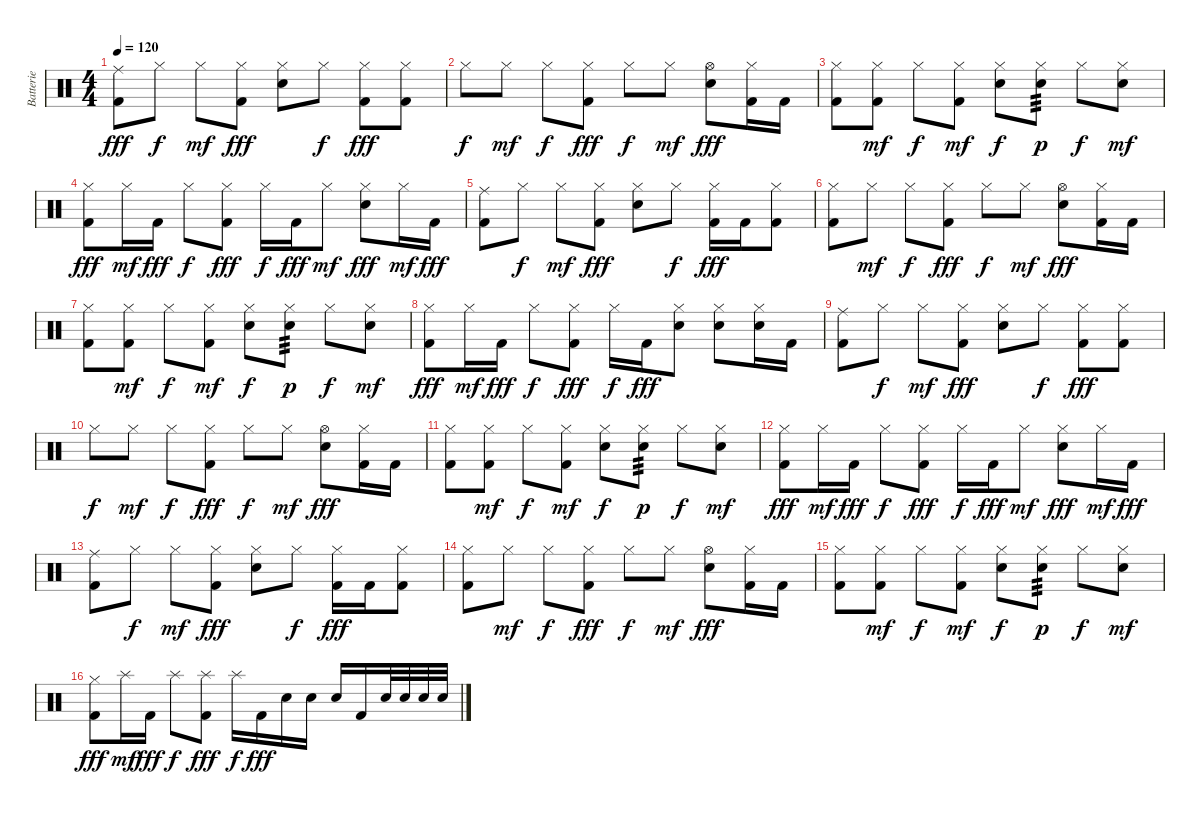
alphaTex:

\track ("Batterie" "Batterie") {instrument percussion}
\staff {score}
\articulation defaults
\ts (4 4)
\tempo 120
\clef neutral
\ks c
("Ride (middle)" "Kick (hit) 2").8{dy fff} "Hi-Hat (closed)".8{dy f} "Hi-Hat (closed)".8{dy mf} ("Hi-Hat (closed)" "Kick (hit) 2").8{dy fff} ("Hi-Hat (closed)" "Electric Snare (hit)").8 "Hi-Hat (closed)".8{dy f} ("Hi-Hat (closed)" "Kick (hit) 2").8{dy fff} ("Hi-Hat (closed)" "Kick (hit) 2").8 |
"Hi-Hat (closed)".8{dy f} "Hi-Hat (closed)".8{dy mf} "Hi-Hat (closed)".8{dy f} ("Hi-Hat (closed)" "Kick (hit) 2").8{dy fff} "Hi-Hat (closed)".8{dy f} "Hi-Hat (closed)".8{dy mf} ("Hi-Hat (open)" "Electric Snare (hit)").8{dy fff} ("Hi-Hat (closed)" "Kick (hit) 2").16 "Kick (hit) 2".16 |
("Hi-Hat (closed)" "Kick (hit) 2").8 ("Hi-Hat (closed)" "Kick (hit) 2").8{dy mf} "Hi-Hat (closed)".8{dy f} ("Hi-Hat (closed)" "Kick (hit) 2").8{dy mf} ("Hi-Hat (closed)" "Electric Snare (hit)").8{dy f} ("Hi-Hat (closed)" "Electric Snare (hit)").8{tp 3 dy p} "Hi-Hat (closed)".8{dy f} ("Hi-Hat (closed)" "Electric Snare (hit)").8{dy mf} |
("Hi-Hat (closed)" "Kick (hit) 2").8{dy fff} "Hi-Hat (closed)".16{dy mf} "Kick (hit) 2".16{dy fff} "Hi-Hat (closed)".8{dy f} ("Hi-Hat (closed)" "Kick (hit) 2").8{dy fff} "Hi-Hat (closed)".16{dy f} "Kick (hit) 2".16{dy fff} "Hi-Hat (closed)".8{dy mf} ("Hi-Hat (closed)" "Electric Snare (hit)").8{dy fff} "Hi-Hat (closed)".16{dy mf} "Kick (hit) 2".16{dy fff} |
("Ride (middle)" "Kick (hit) 2").8 "Hi-Hat (closed)".8{dy f} "Hi-Hat (closed)".8{dy mf} ("Hi-Hat (closed)" "Kick (hit) 2").8{dy fff} ("Hi-Hat (closed)" "Electric Snare (hit)").8 "Hi-Hat (closed)".8{dy f} ("Hi-Hat (closed)" "Kick (hit) 2").16{dy fff} "Kick (hit) 2".16 ("Hi-Hat (closed)" "Kick (hit) 2").8 |
("Hi-Hat (closed)" "Kick (hit) 2").8 "Hi-Hat (closed)".8{dy mf} "Hi-Hat (closed)".8{dy f} ("Hi-Hat (closed)" "Kick (hit) 2").8{dy fff} "Hi-Hat (closed)".8{dy f} "Hi-Hat (closed)".8{dy mf} ("Hi-Hat (open)" "Electric Snare (hit)").8{dy fff} ("Hi-Hat (closed)" "Kick (hit) 2").16 "Kick (hit) 2".16 |
("Hi-Hat (closed)" "Kick (hit) 2").8 ("Hi-Hat (closed)" "Kick (hit) 2").8{dy mf} "Hi-Hat (closed)".8{dy f} ("Hi-Hat (closed)" "Kick (hit) 2").8{dy mf} ("Hi-Hat (closed)" "Electric Snare (hit)").8{dy f} ("Hi-Hat (closed)" "Electric Snare (hit)").8{tp 3 dy p} "Hi-Hat (closed)".8{dy f} ("Hi-Hat (closed)" "Electric Snare (hit)").8{dy mf} |
("Hi-Hat (closed)" "Kick (hit) 2").8{dy fff} "Hi-Hat (closed)".16{dy mf} "Kick (hit) 2".16{dy fff} "Hi-Hat (closed)".8{dy f} ("Hi-Hat (closed)" "Kick (hit) 2").8{dy fff} "Hi-Hat (closed)".16{dy f} "Kick (hit) 2".16{dy fff} ("Hi-Hat (closed)" "Electric Snare (hit)").8 ("Hi-Hat (closed)" "Electric Snare (hit)").8 ("Hi-Hat (closed)" "Electric Snare (hit)").16 "Kick (hit) 2".16 |
("Ride (middle)" "Kick (hit) 2").8 "Hi-Hat (closed)".8{dy f} "Hi-Hat (closed)".8{dy mf} ("Hi-Hat (closed)" "Kick (hit) 2").8{dy fff} ("Hi-Hat (closed)" "Electric Snare (hit)").8 "Hi-Hat (closed)".8{dy f} ("Hi-Hat (closed)" "Kick (hit) 2").8{dy fff} ("Hi-Hat (closed)" "Kick (hit) 2").8 |
"Hi-Hat (closed)".8{dy f} "Hi-Hat (closed)".8{dy mf} "Hi-Hat (closed)".8{dy f} ("Hi-Hat (closed)" "Kick (hit) 2").8{dy fff} "Hi-Hat (closed)".8{dy f} "Hi-Hat (closed)".8{dy mf} ("Hi-Hat (open)" "Electric Snare (hit)").8{dy fff} ("Hi-Hat (closed)" "Kick (hit) 2").16 "Kick (hit) 2".16 |
("Hi-Hat (closed)" "Kick (hit) 2").8 ("Hi-Hat (closed)" "Kick (hit) 2").8{dy mf} "Hi-Hat (closed)".8{dy f} ("Hi-Hat (closed)" "Kick (hit) 2").8{dy mf} ("Hi-Hat (closed)" "Electric Snare (hit)").8{dy f} ("Hi-Hat (closed)" "Electric Snare (hit)").8{tp 3 dy p} "Hi-Hat (closed)".8{dy f} ("Hi-Hat (closed)" "Electric Snare (hit)").8{dy mf} |
("Hi-Hat (closed)" "Kick (hit) 2").8{dy fff} "Hi-Hat (closed)".16{dy mf} "Kick (hit) 2".16{dy fff} "Hi-Hat (closed)".8{dy f} ("Hi-Hat (closed)" "Kick (hit) 2").8{dy fff} "Hi-Hat (closed)".16{dy f} "Kick (hit) 2".16{dy fff} "Hi-Hat (closed)".8{dy mf} ("Hi-Hat (closed)" "Electric Snare (hit)").8{dy fff} "Hi-Hat (closed)".16{dy mf} "Kick (hit) 2".16{dy fff} |
("Ride (middle)" "Kick (hit) 2").8 "Hi-Hat (closed)".8{dy f} "Hi-Hat (closed)".8{dy mf} ("Hi-Hat (closed)" "Kick (hit) 2").8{dy fff} ("Hi-Hat (closed)" "Electric Snare (hit)").8 "Hi-Hat (closed)".8{dy f} ("Hi-Hat (closed)" "Kick (hit) 2").16{dy fff} "Kick (hit) 2".16 ("Hi-Hat (closed)" "Kick (hit) 2").8 |
("Hi-Hat (closed)" "Kick (hit) 2").8 "Hi-Hat (closed)".8{dy mf} "Hi-Hat (closed)".8{dy f} ("Hi-Hat (closed)" "Kick (hit) 2").8{dy fff} "Hi-Hat (closed)".8{dy f} "Hi-Hat (closed)".8{dy mf} ("Hi-Hat (open)" "Electric Snare (hit)").8{dy fff} ("Hi-Hat (closed)" "Kick (hit) 2").16 "Kick (hit) 2".16 |
("Hi-Hat (closed)" "Kick (hit) 2").8 ("Hi-Hat (closed)" "Kick (hit) 2").8{dy mf} "Hi-Hat (closed)".8{dy f} ("Hi-Hat (closed)" "Kick (hit) 2").8{dy mf} ("Hi-Hat (closed)" "Electric Snare (hit)").8{dy f} ("Hi-Hat (closed)" "Electric Snare (hit)").8{tp 3 dy p} "Hi-Hat (closed)".8{dy f} ("Hi-Hat (closed)" "Electric Snare (hit)").8{dy mf} |
("Hi-Hat (closed)" "Kick (hit) 2").8{dy fff} "Splash (hit)".16{dy mf} "Kick (hit) 2".16{dy fff} "Splash (hit)".8{dy f} ("Splash (hit)" "Kick (hit) 2").8{dy fff} "Splash (hit)".16{dy f} "Kick (hit) 2".16{dy fff} "Electric Snare (hit)".16 "Electric Snare (hit)".16 "Electric Snare (hit)".16 "Kick (hit) 2".16 "Electric Snare (hit)".32 "Electric Snare (hit)".32 "Electric Snare (hit)".32 "Electric Snare (hit)".32
